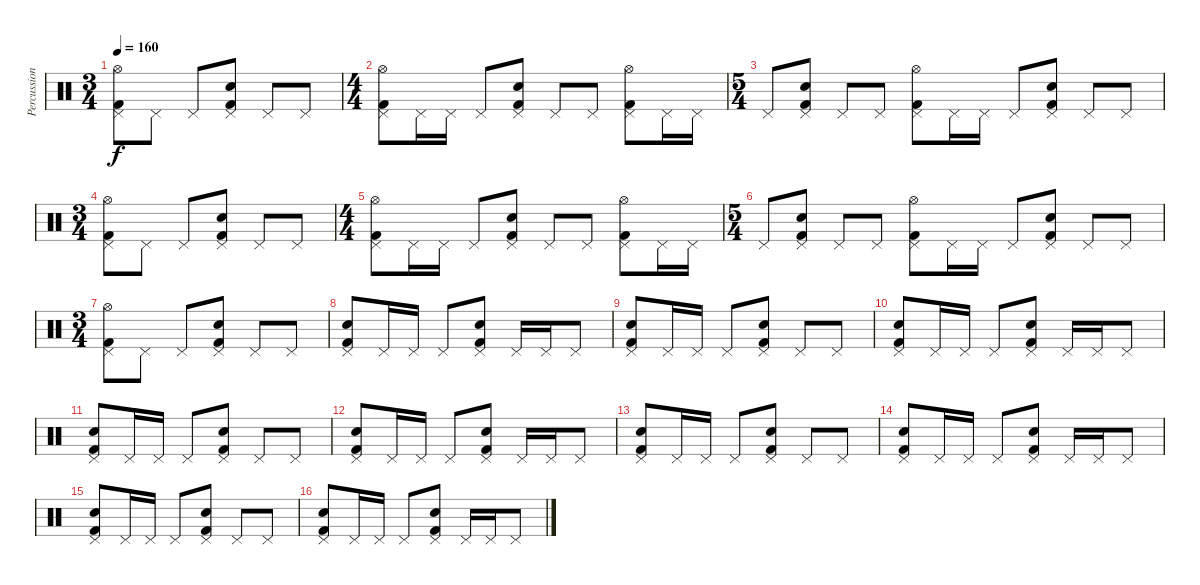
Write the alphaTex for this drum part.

\track ("Percussion" "Percussion") {instrument percussion}
\staff {score}
\articulation defaults
\ts (3 4)
\tempo 160
\clef neutral
\ks c
("Hi-Hat (open)" "Kick (hit) 2" "Pedal Hi-Hat (hit)").8{dy f} "Pedal Hi-Hat (hit)".8 "Pedal Hi-Hat (hit)".8 ("Snare (hit) 2" "Kick (hit) 2" "Pedal Hi-Hat (hit)").8 "Pedal Hi-Hat (hit)".8 "Pedal Hi-Hat (hit)".8 |
\ts (4 4)
("Hi-Hat (open)" "Kick (hit) 2" "Pedal Hi-Hat (hit)").8 "Pedal Hi-Hat (hit)".16 "Pedal Hi-Hat (hit)".16 "Pedal Hi-Hat (hit)".8 ("Snare (hit) 2" "Kick (hit) 2" "Pedal Hi-Hat (hit)").8 "Pedal Hi-Hat (hit)".8 "Pedal Hi-Hat (hit)".8 ("Hi-Hat (open)" "Kick (hit) 2" "Pedal Hi-Hat (hit)").8 "Pedal Hi-Hat (hit)".16 "Pedal Hi-Hat (hit)".16 |
\ts (5 4)
"Pedal Hi-Hat (hit)".8 ("Snare (hit) 2" "Kick (hit) 2" "Pedal Hi-Hat (hit)").8 "Pedal Hi-Hat (hit)".8 "Pedal Hi-Hat (hit)".8 ("Hi-Hat (open)" "Kick (hit) 2" "Pedal Hi-Hat (hit)").8 "Pedal Hi-Hat (hit)".16 "Pedal Hi-Hat (hit)".16 "Pedal Hi-Hat (hit)".8 ("Snare (hit) 2" "Kick (hit) 2" "Pedal Hi-Hat (hit)").8 "Pedal Hi-Hat (hit)".8 "Pedal Hi-Hat (hit)".8 |
\ts (3 4)
("Hi-Hat (open)" "Kick (hit) 2" "Pedal Hi-Hat (hit)").8 "Pedal Hi-Hat (hit)".8 "Pedal Hi-Hat (hit)".8 ("Snare (hit) 2" "Kick (hit) 2" "Pedal Hi-Hat (hit)").8 "Pedal Hi-Hat (hit)".8 "Pedal Hi-Hat (hit)".8 |
\ts (4 4)
("Hi-Hat (open)" "Kick (hit) 2" "Pedal Hi-Hat (hit)").8 "Pedal Hi-Hat (hit)".16 "Pedal Hi-Hat (hit)".16 "Pedal Hi-Hat (hit)".8 ("Snare (hit) 2" "Kick (hit) 2" "Pedal Hi-Hat (hit)").8 "Pedal Hi-Hat (hit)".8 "Pedal Hi-Hat (hit)".8 ("Hi-Hat (open)" "Kick (hit) 2" "Pedal Hi-Hat (hit)").8 "Pedal Hi-Hat (hit)".16 "Pedal Hi-Hat (hit)".16 |
\ts (5 4)
"Pedal Hi-Hat (hit)".8 ("Snare (hit) 2" "Kick (hit) 2" "Pedal Hi-Hat (hit)").8 "Pedal Hi-Hat (hit)".8 "Pedal Hi-Hat (hit)".8 ("Hi-Hat (open)" "Kick (hit) 2" "Pedal Hi-Hat (hit)").8 "Pedal Hi-Hat (hit)".16 "Pedal Hi-Hat (hit)".16 "Pedal Hi-Hat (hit)".8 ("Snare (hit) 2" "Kick (hit) 2" "Pedal Hi-Hat (hit)").8 "Pedal Hi-Hat (hit)".8 "Pedal Hi-Hat (hit)".8 |
\ts (3 4)
("Hi-Hat (open)" "Kick (hit) 2" "Pedal Hi-Hat (hit)").8 "Pedal Hi-Hat (hit)".8 "Pedal Hi-Hat (hit)".8 ("Snare (hit) 2" "Kick (hit) 2" "Pedal Hi-Hat (hit)").8 "Pedal Hi-Hat (hit)".8 "Pedal Hi-Hat (hit)".8 |
("Snare (hit) 2" "Kick (hit) 2" "Pedal Hi-Hat (hit)").8 "Pedal Hi-Hat (hit)".16 "Pedal Hi-Hat (hit)".16 "Pedal Hi-Hat (hit)".8 ("Electric Snare (hit)" "Kick (hit) 2" "Pedal Hi-Hat (hit)").8 "Pedal Hi-Hat (hit)".16 "Pedal Hi-Hat (hit)".16 "Pedal Hi-Hat (hit)".8 |
("Snare (hit) 2" "Kick (hit) 2" "Pedal Hi-Hat (hit)").8 "Pedal Hi-Hat (hit)".16 "Pedal Hi-Hat (hit)".16 "Pedal Hi-Hat (hit)".8 ("Electric Snare (hit)" "Kick (hit) 2" "Pedal Hi-Hat (hit)").8 "Pedal Hi-Hat (hit)".8 "Pedal Hi-Hat (hit)".8 |
("Snare (hit) 2" "Kick (hit) 2" "Pedal Hi-Hat (hit)").8 "Pedal Hi-Hat (hit)".16 "Pedal Hi-Hat (hit)".16 "Pedal Hi-Hat (hit)".8 ("Electric Snare (hit)" "Kick (hit) 2" "Pedal Hi-Hat (hit)").8 "Pedal Hi-Hat (hit)".16 "Pedal Hi-Hat (hit)".16 "Pedal Hi-Hat (hit)".8 |
("Snare (hit) 2" "Kick (hit) 2" "Pedal Hi-Hat (hit)").8 "Pedal Hi-Hat (hit)".16 "Pedal Hi-Hat (hit)".16 "Pedal Hi-Hat (hit)".8 ("Electric Snare (hit)" "Kick (hit) 2" "Pedal Hi-Hat (hit)").8 "Pedal Hi-Hat (hit)".8 "Pedal Hi-Hat (hit)".8 |
("Snare (hit) 2" "Kick (hit) 2" "Pedal Hi-Hat (hit)").8 "Pedal Hi-Hat (hit)".16 "Pedal Hi-Hat (hit)".16 "Pedal Hi-Hat (hit)".8 ("Electric Snare (hit)" "Kick (hit) 2" "Pedal Hi-Hat (hit)").8 "Pedal Hi-Hat (hit)".16 "Pedal Hi-Hat (hit)".16 "Pedal Hi-Hat (hit)".8 |
("Snare (hit) 2" "Kick (hit) 2" "Pedal Hi-Hat (hit)").8 "Pedal Hi-Hat (hit)".16 "Pedal Hi-Hat (hit)".16 "Pedal Hi-Hat (hit)".8 ("Electric Snare (hit)" "Kick (hit) 2" "Pedal Hi-Hat (hit)").8 "Pedal Hi-Hat (hit)".8 "Pedal Hi-Hat (hit)".8 |
("Snare (hit) 2" "Kick (hit) 2" "Pedal Hi-Hat (hit)").8 "Pedal Hi-Hat (hit)".16 "Pedal Hi-Hat (hit)".16 "Pedal Hi-Hat (hit)".8 ("Electric Snare (hit)" "Kick (hit) 2" "Pedal Hi-Hat (hit)").8 "Pedal Hi-Hat (hit)".16 "Pedal Hi-Hat (hit)".16 "Pedal Hi-Hat (hit)".8 |
("Snare (hit) 2" "Kick (hit) 2" "Pedal Hi-Hat (hit)").8 "Pedal Hi-Hat (hit)".16 "Pedal Hi-Hat (hit)".16 "Pedal Hi-Hat (hit)".8 ("Electric Snare (hit)" "Kick (hit) 2" "Pedal Hi-Hat (hit)").8 "Pedal Hi-Hat (hit)".8 "Pedal Hi-Hat (hit)".8 |
("Snare (hit) 2" "Kick (hit) 2" "Pedal Hi-Hat (hit)").8 "Pedal Hi-Hat (hit)".16 "Pedal Hi-Hat (hit)".16 "Pedal Hi-Hat (hit)".8 ("Electric Snare (hit)" "Kick (hit) 2" "Pedal Hi-Hat (hit)").8 "Pedal Hi-Hat (hit)".16 "Pedal Hi-Hat (hit)".16 "Pedal Hi-Hat (hit)".8
